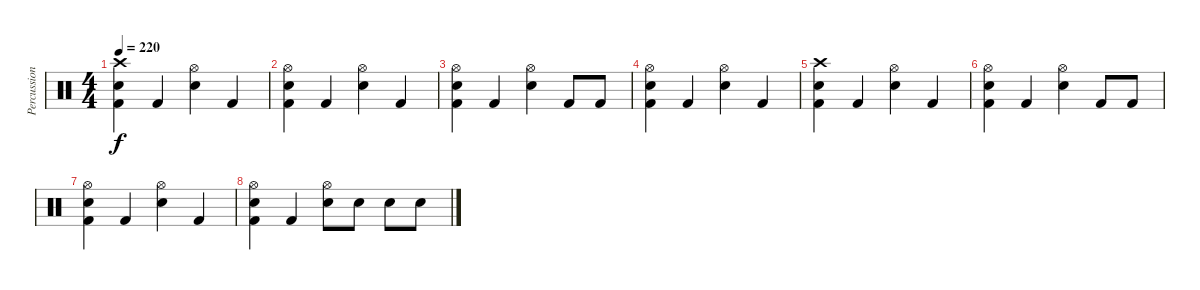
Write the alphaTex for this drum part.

\track ("Percussion" "Percussion") {instrument percussion}
\staff {score}
\articulation defaults
\ts (4 4)
\tempo 220
\clef neutral
\ks c
("Crash high (hit)" "Electric Snare (hit)" "Kick (hit) 2").4{dy f} "Kick (hit) 2".4 ("Hi-Hat (open)" "Electric Snare (hit)").4 "Kick (hit) 2".4 |
("Hi-Hat (open)" "Electric Snare (hit)" "Kick (hit) 2").4 "Kick (hit) 2".4 ("Hi-Hat (open)" "Electric Snare (hit)").4 "Kick (hit) 2".4 |
("Hi-Hat (open)" "Electric Snare (hit)" "Kick (hit) 2").4 "Kick (hit) 2".4 ("Hi-Hat (open)" "Electric Snare (hit)").4 "Kick (hit) 2".8 "Kick (hit) 2".8 |
("Hi-Hat (open)" "Electric Snare (hit)" "Kick (hit) 2").4 "Kick (hit) 2".4 ("Hi-Hat (open)" "Electric Snare (hit)").4 "Kick (hit) 2".4 |
("Crash high (hit)" "Electric Snare (hit)" "Kick (hit) 2").4 "Kick (hit) 2".4 ("Hi-Hat (open)" "Electric Snare (hit)").4 "Kick (hit) 2".4 |
("Hi-Hat (open)" "Electric Snare (hit)" "Kick (hit) 2").4 "Kick (hit) 2".4 ("Hi-Hat (open)" "Electric Snare (hit)").4 "Kick (hit) 2".8 "Kick (hit) 2".8 |
("Hi-Hat (open)" "Electric Snare (hit)" "Kick (hit) 2").4 "Kick (hit) 2".4 ("Hi-Hat (open)" "Electric Snare (hit)").4 "Kick (hit) 2".4 |
("Hi-Hat (open)" "Electric Snare (hit)" "Kick (hit) 2").4 "Kick (hit) 2".4 ("Hi-Hat (open)" "Electric Snare (hit)").8 "Electric Snare (hit)".8 "Electric Snare (hit)".8 "Electric Snare (hit)".8
